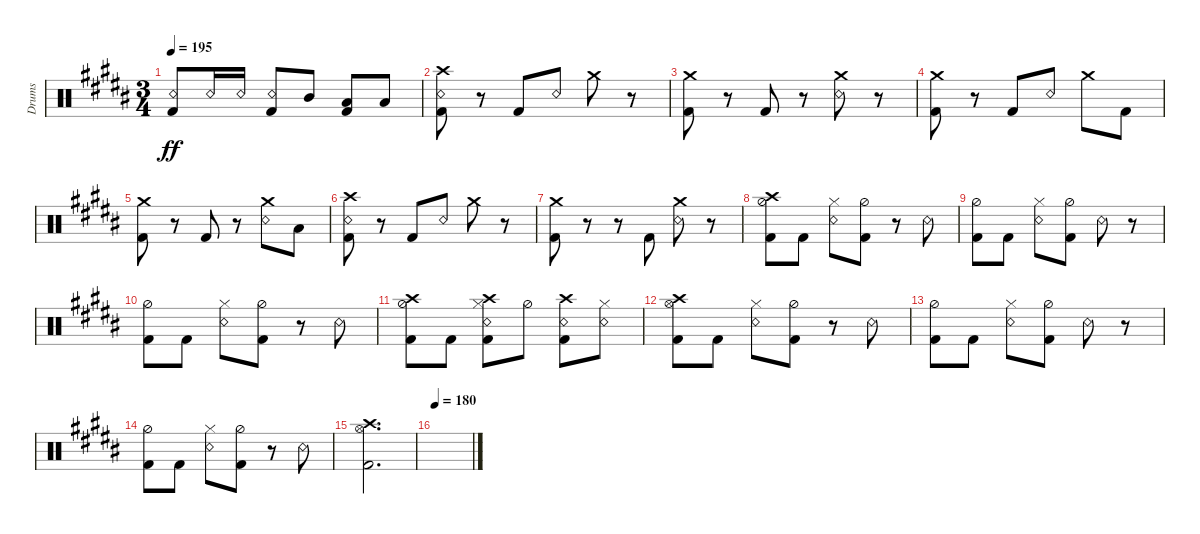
\bracketExtendMode groupsimilarinstruments
\otherSystemsTrackNameOrientation horizontal
\track ("Drumkit" "Drums") {instrument percussion}
\staff {score}
\articulation defaults
\ts (3 4)
\tempo 195
\clef neutral
\ks b
("Snare (rim shot)"{acc bb} "Kick (hit) 2"{acc bb}).8{dy ff beam Up} "Snare (rim shot)"{acc bb}.16{beam Up} "Snare (rim shot)"{acc bb}.16{beam Up} ("Snare (rim shot)"{acc bb} "Kick (hit) 2"{acc bb}).8{beam Up} "Mid Tom (hit)"{acc bb}.8{beam Up} ("Low Tom (hit)"{acc bb} "Kick (hit) 2"{acc bb}).8{beam Up} "Low Tom (hit)"{acc bb}.8{beam Up} |
("Crash high (hit)"{acc bb} "Snare (rim shot)"{acc bb} "Kick (hit) 2"{acc bb}).8{beam Down} r.8{beam Down} "Kick (hit) 2"{acc bb}.8{beam Up} "Snare (rim shot)"{acc bb}.8{beam Up} "Crash medium (hit)"{acc bb}.8{beam Down} r.8{beam Down} |
("Crash medium (hit)"{acc bb} "Kick (hit) 2"{acc bb}).8{beam Down} r.8{beam Down} "Kick (hit) 2"{acc bb}.8{beam Up} r.8{beam Up} ("Crash medium (hit)"{acc bb} "Snare (rim shot)"{acc bb}).8{beam Down} r.8{beam Down} |
("Crash medium (hit)"{acc bb} "Kick (hit) 2"{acc bb}).8{beam Down} r.8{beam Down} "Kick (hit) 2"{acc bb}.8{beam Up} "Snare (rim shot)"{acc bb}.8{beam Up} "Crash medium (hit)"{acc bb}.8{beam Down} "Kick (hit) 2"{acc bb}.8{beam Down} |
("Crash medium (hit)"{acc bb} "Kick (hit) 2"{acc bb}).8{beam Down} r.8{beam Down} "Kick (hit) 2"{acc bb}.8{beam Up} r.8{beam Up} ("Crash medium (hit)"{acc bb} "Snare (rim shot)"{acc bb}).8{beam Down} "Low Tom (hit)"{acc bb}.8{beam Down} |
("Crash high (hit)"{acc bb} "Snare (rim shot)"{acc bb} "Kick (hit) 2"{acc bb}).8{beam Down} r.8{beam Down} "Kick (hit) 2"{acc bb}.8{beam Up} "Snare (rim shot)"{acc bb}.8{beam Up} "Crash medium (hit)"{acc bb}.8{beam Down} r.8{beam Down} |
("Crash medium (hit)"{acc bb} "Kick (hit) 2"{acc bb}).8{beam Down} r.8{beam Down} r.8{beam Down} "Kick (hit) 2"{acc bb}.8{beam Up} ("Snare (rim shot)"{acc bb} "Crash medium (hit)"{acc bb}).8{beam Down} r.8{beam Down} |
("Kick (hit) 2"{acc bb} "Hi-Hat (half)"{acc bb} "Crash high (hit)"{acc bb}).8{beam Down} "Kick (hit) 2"{acc bb}.8{beam Down} ("Hi-Hat (closed)"{acc bb} "Snare (rim shot)"{acc bb}).8{beam Down} ("Kick (hit) 2"{acc bb} "Hi-Hat (half)"{acc bb}).8{beam Down} r.8{beam Down} "Snare (rim shot)"{acc bb}.8{beam Down} |
("Kick (hit) 2"{acc bb} "Hi-Hat (half)"{acc bb}).8{beam Down} "Kick (hit) 2"{acc bb}.8{beam Down} ("Hi-Hat (closed)"{acc bb} "Snare (rim shot)"{acc bb}).8{beam Down} ("Kick (hit) 2"{acc bb} "Hi-Hat (half)"{acc bb}).8{beam Down} "Snare (rim shot)"{acc bb}.8{beam Down} r.8{beam Down} |
("Kick (hit) 2"{acc bb} "Hi-Hat (half)"{acc bb}).8{beam Down} "Kick (hit) 2"{acc bb}.8{beam Down} ("Hi-Hat (closed)"{acc bb} "Snare (rim shot)"{acc bb}).8{beam Down} ("Kick (hit) 2"{acc bb} "Hi-Hat (half)"{acc bb}).8{beam Down} r.8{beam Down} "Snare (rim shot)"{acc bb}.8{beam Down} |
("Kick (hit) 2"{acc bb} "Hi-Hat (half)"{acc bb} "Crash high (hit)"{acc bb}).8{beam Down} "Kick (hit) 2"{acc bb}.8{beam Down} ("Kick (hit) 2"{acc bb} "Hi-Hat (closed)"{acc bb} "Snare (rim shot)"{acc bb} "Crash high (hit)"{acc bb}).8{beam Down} "Hi-Hat (half)"{acc bb}.8{beam Down} ("Kick (hit) 2"{acc bb} "Snare (rim shot)"{acc bb} "Crash high (hit)"{acc bb}).8{beam Down} ("Hi-Hat (closed)"{acc bb} "Snare (rim shot)"{acc bb}).8{beam Down} |
("Kick (hit) 2"{acc bb} "Crash high (hit)"{acc bb} "Hi-Hat (open)"{acc bb}).8{beam Down} "Kick (hit) 2"{acc bb}.8{beam Down} ("Hi-Hat (closed)"{acc bb} "Snare (rim shot)"{acc bb}).8{beam Down} ("Kick (hit) 2"{acc bb} "Hi-Hat (half)"{acc bb}).8{beam Down} r.8{beam Down} "Snare (rim shot)"{acc bb}.8{beam Down} |
("Kick (hit) 2"{acc bb} "Hi-Hat (half)"{acc bb}).8{beam Down} "Kick (hit) 2"{acc bb}.8{beam Down} ("Hi-Hat (closed)"{acc bb} "Snare (rim shot)"{acc bb}).8{beam Down} ("Kick (hit) 2"{acc bb} "Hi-Hat (half)"{acc bb}).8{beam Down} "Snare (rim shot)"{acc bb}.8{beam Down} r.8{beam Down} |
("Kick (hit) 2"{acc bb} "Hi-Hat (half)"{acc bb}).8{beam Down} "Kick (hit) 2"{acc bb}.8{beam Down} ("Hi-Hat (closed)"{acc bb} "Snare (rim shot)"{acc bb}).8{beam Down} ("Kick (hit) 2"{acc bb} "Hi-Hat (half)"{acc bb}).8{beam Down} r.8{beam Down} "Snare (rim shot)"{acc bb}.8{beam Down} |
("Kick (hit) 2"{acc bb} "Hi-Hat (open)"{acc bb} "Crash high (hit)"{acc bb}).2{d beam Down} |
\tempo 180
